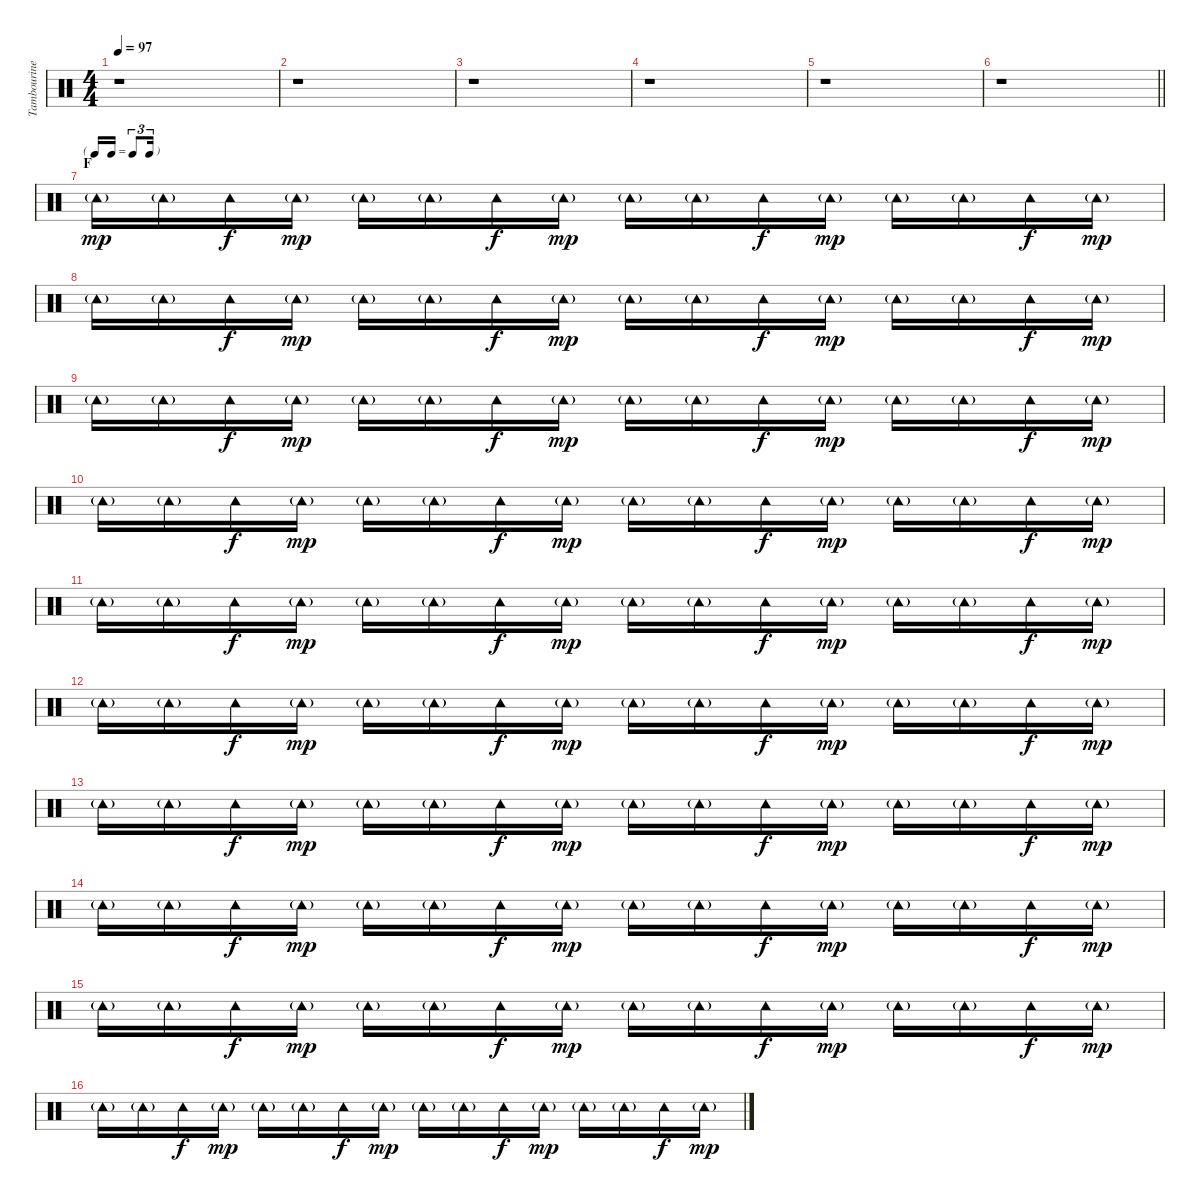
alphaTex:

\track ("Tambourine" "Tambourine") {instrument percussion}
\staff {score}
\articulation defaults
\ts (4 4)
\tempo 97
\clef neutral
\ks c
r.1{dy f} |
r.1 |
r.1 |
r.1 |
r.1 |
\barLineRight lightlight
r.1 |
\tf triplet16th
\section ("" "F")
"Tambourine (hit)"{g}.16{dy mp} "Tambourine (hit)"{g}.16 "Tambourine (hit)".16{dy f} "Tambourine (hit)"{g}.16{dy mp} "Tambourine (hit)"{g}.16 "Tambourine (hit)"{g}.16 "Tambourine (hit)".16{dy f} "Tambourine (hit)"{g}.16{dy mp} "Tambourine (hit)"{g}.16 "Tambourine (hit)"{g}.16 "Tambourine (hit)".16{dy f} "Tambourine (hit)"{g}.16{dy mp} "Tambourine (hit)"{g}.16 "Tambourine (hit)"{g}.16 "Tambourine (hit)".16{dy f} "Tambourine (hit)"{g}.16{dy mp} |
"Tambourine (hit)"{g}.16 "Tambourine (hit)"{g}.16 "Tambourine (hit)".16{dy f} "Tambourine (hit)"{g}.16{dy mp} "Tambourine (hit)"{g}.16 "Tambourine (hit)"{g}.16 "Tambourine (hit)".16{dy f} "Tambourine (hit)"{g}.16{dy mp} "Tambourine (hit)"{g}.16 "Tambourine (hit)"{g}.16 "Tambourine (hit)".16{dy f} "Tambourine (hit)"{g}.16{dy mp} "Tambourine (hit)"{g}.16 "Tambourine (hit)"{g}.16 "Tambourine (hit)".16{dy f} "Tambourine (hit)"{g}.16{dy mp} |
"Tambourine (hit)"{g}.16 "Tambourine (hit)"{g}.16 "Tambourine (hit)".16{dy f} "Tambourine (hit)"{g}.16{dy mp} "Tambourine (hit)"{g}.16 "Tambourine (hit)"{g}.16 "Tambourine (hit)".16{dy f} "Tambourine (hit)"{g}.16{dy mp} "Tambourine (hit)"{g}.16 "Tambourine (hit)"{g}.16 "Tambourine (hit)".16{dy f} "Tambourine (hit)"{g}.16{dy mp} "Tambourine (hit)"{g}.16 "Tambourine (hit)"{g}.16 "Tambourine (hit)".16{dy f} "Tambourine (hit)"{g}.16{dy mp} |
"Tambourine (hit)"{g}.16 "Tambourine (hit)"{g}.16 "Tambourine (hit)".16{dy f} "Tambourine (hit)"{g}.16{dy mp} "Tambourine (hit)"{g}.16 "Tambourine (hit)"{g}.16 "Tambourine (hit)".16{dy f} "Tambourine (hit)"{g}.16{dy mp} "Tambourine (hit)"{g}.16 "Tambourine (hit)"{g}.16 "Tambourine (hit)".16{dy f} "Tambourine (hit)"{g}.16{dy mp} "Tambourine (hit)"{g}.16 "Tambourine (hit)"{g}.16 "Tambourine (hit)".16{dy f} "Tambourine (hit)"{g}.16{dy mp} |
"Tambourine (hit)"{g}.16 "Tambourine (hit)"{g}.16 "Tambourine (hit)".16{dy f} "Tambourine (hit)"{g}.16{dy mp} "Tambourine (hit)"{g}.16 "Tambourine (hit)"{g}.16 "Tambourine (hit)".16{dy f} "Tambourine (hit)"{g}.16{dy mp} "Tambourine (hit)"{g}.16 "Tambourine (hit)"{g}.16 "Tambourine (hit)".16{dy f} "Tambourine (hit)"{g}.16{dy mp} "Tambourine (hit)"{g}.16 "Tambourine (hit)"{g}.16 "Tambourine (hit)".16{dy f} "Tambourine (hit)"{g}.16{dy mp} |
"Tambourine (hit)"{g}.16 "Tambourine (hit)"{g}.16 "Tambourine (hit)".16{dy f} "Tambourine (hit)"{g}.16{dy mp} "Tambourine (hit)"{g}.16 "Tambourine (hit)"{g}.16 "Tambourine (hit)".16{dy f} "Tambourine (hit)"{g}.16{dy mp} "Tambourine (hit)"{g}.16 "Tambourine (hit)"{g}.16 "Tambourine (hit)".16{dy f} "Tambourine (hit)"{g}.16{dy mp} "Tambourine (hit)"{g}.16 "Tambourine (hit)"{g}.16 "Tambourine (hit)".16{dy f} "Tambourine (hit)"{g}.16{dy mp} |
"Tambourine (hit)"{g}.16 "Tambourine (hit)"{g}.16 "Tambourine (hit)".16{dy f} "Tambourine (hit)"{g}.16{dy mp} "Tambourine (hit)"{g}.16 "Tambourine (hit)"{g}.16 "Tambourine (hit)".16{dy f} "Tambourine (hit)"{g}.16{dy mp} "Tambourine (hit)"{g}.16 "Tambourine (hit)"{g}.16 "Tambourine (hit)".16{dy f} "Tambourine (hit)"{g}.16{dy mp} "Tambourine (hit)"{g}.16 "Tambourine (hit)"{g}.16 "Tambourine (hit)".16{dy f} "Tambourine (hit)"{g}.16{dy mp} |
"Tambourine (hit)"{g}.16 "Tambourine (hit)"{g}.16 "Tambourine (hit)".16{dy f} "Tambourine (hit)"{g}.16{dy mp} "Tambourine (hit)"{g}.16 "Tambourine (hit)"{g}.16 "Tambourine (hit)".16{dy f} "Tambourine (hit)"{g}.16{dy mp} "Tambourine (hit)"{g}.16 "Tambourine (hit)"{g}.16 "Tambourine (hit)".16{dy f} "Tambourine (hit)"{g}.16{dy mp} "Tambourine (hit)"{g}.16 "Tambourine (hit)"{g}.16 "Tambourine (hit)".16{dy f} "Tambourine (hit)"{g}.16{dy mp} |
"Tambourine (hit)"{g}.16 "Tambourine (hit)"{g}.16 "Tambourine (hit)".16{dy f} "Tambourine (hit)"{g}.16{dy mp} "Tambourine (hit)"{g}.16 "Tambourine (hit)"{g}.16 "Tambourine (hit)".16{dy f} "Tambourine (hit)"{g}.16{dy mp} "Tambourine (hit)"{g}.16 "Tambourine (hit)"{g}.16 "Tambourine (hit)".16{dy f} "Tambourine (hit)"{g}.16{dy mp} "Tambourine (hit)"{g}.16 "Tambourine (hit)"{g}.16 "Tambourine (hit)".16{dy f} "Tambourine (hit)"{g}.16{dy mp} |
"Tambourine (hit)"{g}.16 "Tambourine (hit)"{g}.16 "Tambourine (hit)".16{dy f} "Tambourine (hit)"{g}.16{dy mp} "Tambourine (hit)"{g}.16 "Tambourine (hit)"{g}.16 "Tambourine (hit)".16{dy f} "Tambourine (hit)"{g}.16{dy mp} "Tambourine (hit)"{g}.16 "Tambourine (hit)"{g}.16 "Tambourine (hit)".16{dy f} "Tambourine (hit)"{g}.16{dy mp} "Tambourine (hit)"{g}.16 "Tambourine (hit)"{g}.16 "Tambourine (hit)".16{dy f} "Tambourine (hit)"{g}.16{dy mp}
